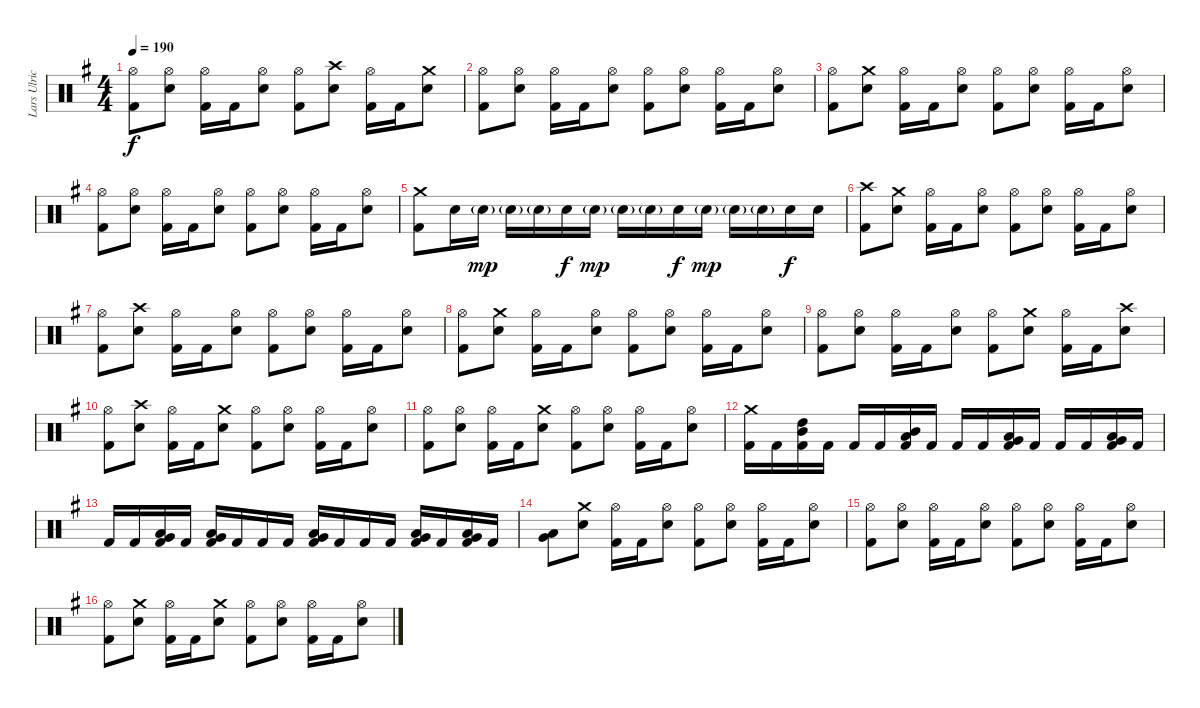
\track ("Lars Ulrich - Drums" "Lars Ulric") {instrument percussion}
\staff {score}
\articulation defaults
\ts (4 4)
\tempo 190
\clef neutral
\ks eminor
("Hi-Hat (open)" "Kick (hit) 2").8{dy f} ("Hi-Hat (open)" "Snare (hit) 2").8 ("Hi-Hat (open)" "Kick (hit) 2").16 "Kick (hit) 2".16 ("Hi-Hat (open)" "Snare (hit) 2").8 ("Hi-Hat (open)" "Kick (hit) 2").8 ("Crash high (hit)" "Snare (hit) 2").8 ("Hi-Hat (open)" "Kick (hit) 2").16 "Kick (hit) 2".16 ("Crash medium (hit)" "Snare (hit) 2").8 |
("Hi-Hat (open)" "Kick (hit) 2").8 ("Hi-Hat (open)" "Snare (hit) 2").8 ("Hi-Hat (open)" "Kick (hit) 2").16 "Kick (hit) 2".16 ("Hi-Hat (open)" "Snare (hit) 2").8 ("Hi-Hat (open)" "Kick (hit) 2").8 ("Hi-Hat (open)" "Snare (hit) 2").8 ("Hi-Hat (open)" "Kick (hit) 2").16 "Kick (hit) 2".16 ("Hi-Hat (open)" "Snare (hit) 2").8 |
("Hi-Hat (open)" "Kick (hit) 2").8 ("Crash medium (hit)" "Snare (hit) 2").8 ("Hi-Hat (open)" "Kick (hit) 2").16 "Kick (hit) 2".16 ("Hi-Hat (open)" "Snare (hit) 2").8 ("Hi-Hat (open)" "Kick (hit) 2").8 ("Hi-Hat (open)" "Snare (hit) 2").8 ("Hi-Hat (open)" "Kick (hit) 2").16 "Kick (hit) 2".16 ("Hi-Hat (open)" "Snare (hit) 2").8 |
("Hi-Hat (open)" "Kick (hit) 2").8 ("Hi-Hat (open)" "Snare (hit) 2").8 ("Hi-Hat (open)" "Kick (hit) 2").16 "Kick (hit) 2".16 ("Hi-Hat (open)" "Snare (hit) 2").8 ("Hi-Hat (open)" "Kick (hit) 2").8 ("Hi-Hat (open)" "Snare (hit) 2").8 ("Hi-Hat (open)" "Kick (hit) 2").16 "Kick (hit) 2".16 ("Hi-Hat (open)" "Snare (hit) 2").8 |
("Crash medium (hit)" "Kick (hit) 2").8 "Snare (hit) 2".16 "Snare (hit) 2"{g}.16{dy mp} "Snare (hit) 2"{g}.16 "Snare (hit) 2"{g}.16 "Snare (hit) 2".16{dy f} "Snare (hit) 2"{g}.16{dy mp} "Snare (hit) 2"{g}.16 "Snare (hit) 2"{g}.16 "Snare (hit) 2".16{dy f} "Snare (hit) 2"{g}.16{dy mp} "Snare (hit) 2"{g}.16 "Snare (hit) 2"{g}.16 "Snare (hit) 2".16{dy f} "Snare (hit) 2".16 |
("Crash high (hit)" "Kick (hit) 2").8 ("Crash medium (hit)" "Snare (hit) 2").8 ("Hi-Hat (open)" "Kick (hit) 2").16 "Kick (hit) 2".16 ("Hi-Hat (open)" "Snare (hit) 2").8 ("Hi-Hat (open)" "Kick (hit) 2").8 ("Hi-Hat (open)" "Snare (hit) 2").8 ("Hi-Hat (open)" "Kick (hit) 2").16 "Kick (hit) 2".16 ("Hi-Hat (open)" "Snare (hit) 2").8 |
("Hi-Hat (open)" "Kick (hit) 2").8 ("Crash high (hit)" "Snare (hit) 2").8 ("Hi-Hat (open)" "Kick (hit) 2").16 "Kick (hit) 2".16 ("Hi-Hat (open)" "Snare (hit) 2").8 ("Hi-Hat (open)" "Kick (hit) 2").8 ("Hi-Hat (open)" "Snare (hit) 2").8 ("Hi-Hat (open)" "Kick (hit) 2").16 "Kick (hit) 2".16 ("Hi-Hat (open)" "Snare (hit) 2").8 |
("Hi-Hat (open)" "Kick (hit) 2").8 ("Crash medium (hit)" "Snare (hit) 2").8 ("Hi-Hat (open)" "Kick (hit) 2").16 "Kick (hit) 2".16 ("Hi-Hat (open)" "Snare (hit) 2").8 ("Hi-Hat (open)" "Kick (hit) 2").8 ("Hi-Hat (open)" "Snare (hit) 2").8 ("Hi-Hat (open)" "Kick (hit) 2").16 "Kick (hit) 2".16 ("Hi-Hat (open)" "Snare (hit) 2").8 |
("Hi-Hat (open)" "Kick (hit) 2").8 ("Hi-Hat (open)" "Snare (hit) 2").8 ("Hi-Hat (open)" "Kick (hit) 2").16 "Kick (hit) 2".16 ("Hi-Hat (open)" "Snare (hit) 2").8 ("Hi-Hat (open)" "Kick (hit) 2").8 ("Crash medium (hit)" "Snare (hit) 2").8 ("Hi-Hat (open)" "Kick (hit) 2").16 "Kick (hit) 2".16 ("Crash high (hit)" "Snare (hit) 2").8 |
("Hi-Hat (open)" "Kick (hit) 2").8 ("Crash high (hit)" "Snare (hit) 2").8 ("Hi-Hat (open)" "Kick (hit) 2").16 "Kick (hit) 2".16 ("Crash medium (hit)" "Snare (hit) 2").8 ("Hi-Hat (open)" "Kick (hit) 2").8 ("Hi-Hat (open)" "Snare (hit) 2").8 ("Hi-Hat (open)" "Kick (hit) 2").16 "Kick (hit) 2".16 ("Hi-Hat (open)" "Snare (hit) 2").8 |
("Hi-Hat (open)" "Kick (hit) 2").8 ("Hi-Hat (open)" "Snare (hit) 2").8 ("Hi-Hat (open)" "Kick (hit) 2").16 "Kick (hit) 2".16 ("Crash medium (hit)" "Snare (hit) 2").8 ("Hi-Hat (open)" "Kick (hit) 2").8 ("Hi-Hat (open)" "Snare (hit) 2").8 ("Hi-Hat (open)" "Kick (hit) 2").16 "Kick (hit) 2".16 ("Hi-Hat (open)" "Snare (hit) 2").8 |
("Crash medium (hit)" "Kick (hit) 2").16 "Kick (hit) 2".16 ("High Tom (hit)" "Mid Tom (hit)" "Kick (hit) 2").16 "Kick (hit) 2".16 "Kick (hit) 2".16 "Kick (hit) 2".16 ("Mid Tom (hit)" "Low Tom (hit)" "Kick (hit) 2").16 "Kick (hit) 2".16 "Kick (hit) 2".16 "Kick (hit) 2".16 ("Low Tom (hit)" "Very Low Tom (hit)" "Kick (hit) 2").16 "Kick (hit) 2".16 "Kick (hit) 2".16 "Kick (hit) 2".16 ("Very Low Tom (hit)" "Low Floor Tom (hit)" "Kick (hit) 2").16 "Kick (hit) 2".16 |
"Kick (hit) 2".16 "Kick (hit) 2".16 ("Very Low Tom (hit)" "Low Floor Tom (hit)" "Kick (hit) 2").16 "Kick (hit) 2".16 ("Very Low Tom (hit)" "Low Floor Tom (hit)" "Kick (hit) 2").16 "Kick (hit) 2".16 "Kick (hit) 2".16 "Kick (hit) 2".16 ("Very Low Tom (hit)" "Low Floor Tom (hit)" "Kick (hit) 2").16 "Kick (hit) 2".16 "Kick (hit) 2".16 "Kick (hit) 2".16 ("Very Low Tom (hit)" "Low Floor Tom (hit)" "Kick (hit) 2").16 "Kick (hit) 2".16 ("Very Low Tom (hit)" "Low Floor Tom (hit)" "Kick (hit) 2").16 "Kick (hit) 2".16 |
("Very Low Tom (hit)" "Low Floor Tom (hit)").8 ("Crash medium (hit)" "Snare (hit) 2").8 ("Hi-Hat (open)" "Kick (hit) 2").16 "Kick (hit) 2".16 ("Hi-Hat (open)" "Snare (hit) 2").8 ("Hi-Hat (open)" "Kick (hit) 2").8 ("Hi-Hat (open)" "Snare (hit) 2").8 ("Hi-Hat (open)" "Kick (hit) 2").16 "Kick (hit) 2".16 ("Hi-Hat (open)" "Snare (hit) 2").8 |
("Hi-Hat (open)" "Kick (hit) 2").8 ("Hi-Hat (open)" "Snare (hit) 2").8 ("Hi-Hat (open)" "Kick (hit) 2").16 "Kick (hit) 2".16 ("Hi-Hat (open)" "Snare (hit) 2").8 ("Hi-Hat (open)" "Kick (hit) 2").8 ("Hi-Hat (open)" "Snare (hit) 2").8 ("Hi-Hat (open)" "Kick (hit) 2").16 "Kick (hit) 2".16 ("Hi-Hat (open)" "Snare (hit) 2").8 |
("Hi-Hat (open)" "Kick (hit) 2").8 ("Crash medium (hit)" "Snare (hit) 2").8 ("Hi-Hat (open)" "Kick (hit) 2").16 "Kick (hit) 2".16 ("Crash medium (hit)" "Snare (hit) 2").8 ("Hi-Hat (open)" "Kick (hit) 2").8 ("Hi-Hat (open)" "Snare (hit) 2").8 ("Hi-Hat (open)" "Kick (hit) 2").16 "Kick (hit) 2".16 ("Hi-Hat (open)" "Snare (hit) 2").8
